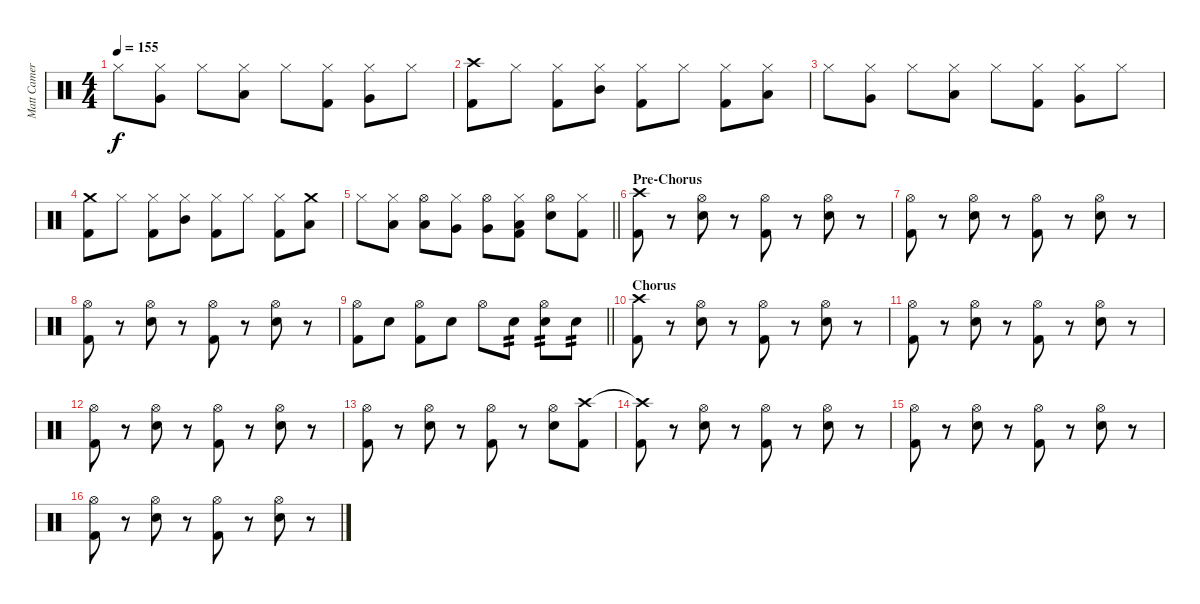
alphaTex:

\track ("Matt Cameron" "Matt Camer") {instrument percussion}
\staff {score}
\articulation defaults
\ts (4 4)
\tempo 155
\clef neutral
\ks c "Hi-Hat (closed)".8{dy f}
("Hi-Hat (closed)" "Very Low Tom (hit)").8 "Hi-Hat (closed)".8 ("Hi-Hat (closed)" "Low Floor Tom (hit)").8 "Hi-Hat (closed)".8 ("Hi-Hat (closed)" "Kick (hit) 2").8 ("Hi-Hat (closed)" "Very Low Tom (hit)").8 "Hi-Hat (closed)".8 |
("Crash high (hit)" "Kick (hit) 2").8 "Hi-Hat (closed)".8 ("Hi-Hat (closed)" "Kick (hit) 2").8 ("Hi-Hat (closed)" "Mid Tom (hit)").8 ("Hi-Hat (closed)" "Kick (hit) 2").8 "Hi-Hat (closed)".8 ("Hi-Hat (closed)" "Kick (hit) 2").8 ("Hi-Hat (closed)" "Low Tom (hit)").8 |
"Hi-Hat (closed)".8 ("Hi-Hat (closed)" "Very Low Tom (hit)").8 "Hi-Hat (closed)".8 ("Hi-Hat (closed)" "Low Floor Tom (hit)").8 "Hi-Hat (closed)".8 ("Hi-Hat (closed)" "Kick (hit) 2").8 ("Hi-Hat (closed)" "Very Low Tom (hit)").8 "Hi-Hat (closed)".8 |
("Crash medium (hit)" "Kick (hit) 2").8 "Hi-Hat (closed)".8 ("Hi-Hat (closed)" "Kick (hit) 2").8 ("Hi-Hat (closed)" "Mid Tom (hit)").8 ("Hi-Hat (closed)" "Kick (hit) 2").8 "Hi-Hat (closed)".8 ("Hi-Hat (closed)" "Kick (hit) 2").8 ("Crash medium (hit)" "Low Tom (hit)").8 |
\barLineRight lightlight "Hi-Hat (closed)".8
("Hi-Hat (closed)" "Low Tom (hit)").8 ("Hi-Hat (open)" "Low Tom (hit)").8 ("Hi-Hat (closed)" "Very Low Tom (hit)").8 ("Hi-Hat (open)" "Very Low Tom (hit)").8 ("Hi-Hat (closed)" "Low Floor Tom (hit)" "Kick (hit) 2").8 ("Hi-Hat (open)" "Snare (hit) 2").8 ("Hi-Hat (closed)" "Kick (hit) 2").8 |
\section ("" "Pre-Chorus")
("Crash high (hit)" "Kick (hit) 2").8 r.8 ("Hi-Hat (open)" "Snare (hit) 2").8 r.8 ("Hi-Hat (open)" "Kick (hit) 2").8 r.8 ("Hi-Hat (open)" "Snare (hit) 2").8 r.8 |
("Hi-Hat (open)" "Kick (hit) 2").8 r.8 ("Hi-Hat (open)" "Snare (hit) 2").8 r.8 ("Hi-Hat (open)" "Kick (hit) 2").8 r.8 ("Hi-Hat (open)" "Snare (hit) 2").8 r.8 |
("Hi-Hat (open)" "Kick (hit) 2").8 r.8 ("Hi-Hat (open)" "Snare (hit) 2").8 r.8 ("Hi-Hat (open)" "Kick (hit) 2").8 r.8 ("Hi-Hat (open)" "Snare (hit) 2").8 r.8 |
\barLineRight lightlight
("Hi-Hat (open)" "Kick (hit) 2").8 "Snare (hit) 2".8 ("Hi-Hat (open)" "Kick (hit) 2").8 "Snare (hit) 2".8 "Hi-Hat (open)".8 "Snare (hit) 2".8{tp 2} ("Hi-Hat (open)" "Snare (hit) 2").8{tp 2} "Snare (hit) 2".8{tp 2} |
\section ("" "Chorus")
("Crash high (hit)" "Kick (hit) 2").8 r.8 ("Hi-Hat (open)" "Snare (hit) 2").8 r.8 ("Hi-Hat (open)" "Kick (hit) 2").8 r.8 ("Hi-Hat (open)" "Snare (hit) 2").8 r.8 |
("Hi-Hat (open)" "Kick (hit) 2").8 r.8 ("Hi-Hat (open)" "Snare (hit) 2").8 r.8 ("Hi-Hat (open)" "Kick (hit) 2").8 r.8 ("Hi-Hat (open)" "Snare (hit) 2").8 r.8 |
("Hi-Hat (open)" "Kick (hit) 2").8 r.8 ("Hi-Hat (open)" "Snare (hit) 2").8 r.8 ("Hi-Hat (open)" "Kick (hit) 2").8 r.8 ("Hi-Hat (open)" "Snare (hit) 2").8 r.8 |
("Hi-Hat (open)" "Kick (hit) 2").8 r.8 ("Hi-Hat (open)" "Snare (hit) 2").8 r.8 ("Hi-Hat (open)" "Kick (hit) 2").8 r.8 ("Hi-Hat (open)" "Snare (hit) 2").8 ("Crash high (hit)" "Kick (hit) 2").8 |
("Crash high (hit)"{t} "Kick (hit) 2").8 r.8 ("Hi-Hat (open)" "Snare (hit) 2").8 r.8 ("Hi-Hat (open)" "Kick (hit) 2").8 r.8 ("Hi-Hat (open)" "Snare (hit) 2").8 r.8 |
("Hi-Hat (open)" "Kick (hit) 2").8 r.8 ("Hi-Hat (open)" "Snare (hit) 2").8 r.8 ("Hi-Hat (open)" "Kick (hit) 2").8 r.8 ("Hi-Hat (open)" "Snare (hit) 2").8 r.8 |
("Hi-Hat (open)" "Kick (hit) 2").8 r.8 ("Hi-Hat (open)" "Snare (hit) 2").8 r.8 ("Hi-Hat (open)" "Kick (hit) 2").8 r.8 ("Hi-Hat (open)" "Snare (hit) 2").8 r.8
